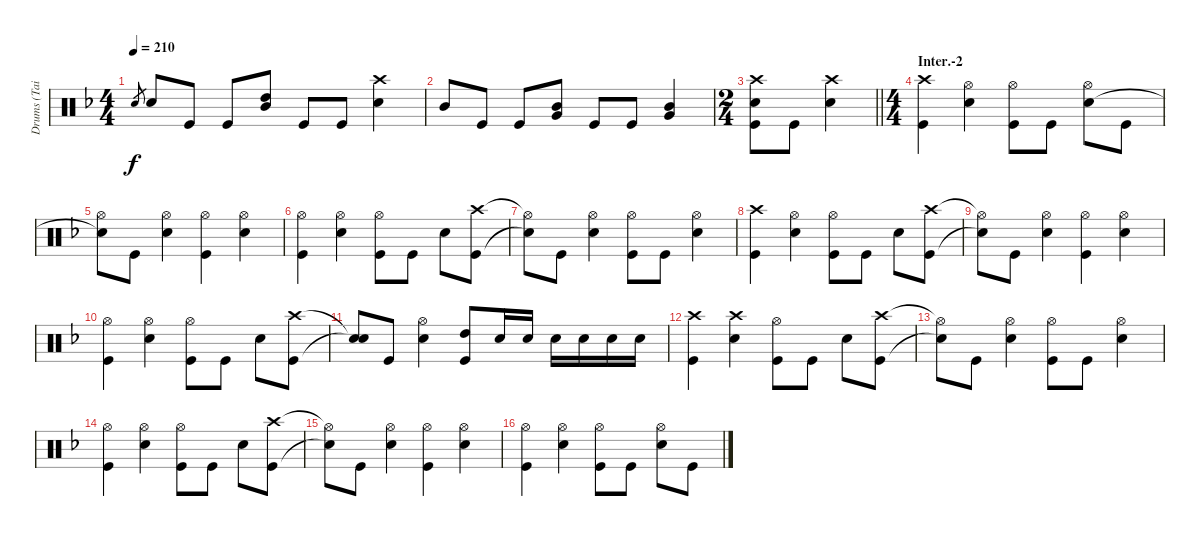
\track ("Drums (Tainaka Ritsu)" "Drums (Tai") {instrument percussion}
\staff {score}
\articulation defaults
\ts (4 4)
\tempo 210
\clef neutral
\ks f "Snare (hit) 2".8{gr dy f} "Snare (hit) 2".8 "Kick (hit)".8 "Kick (hit)".8
("High Tom (hit)" "Mid Tom (hit)").8 "Kick (hit)".8 "Kick (hit)".8 ("Crash high (hit)" "Snare (hit) 2").4 |
"Mid Tom (hit)".8 "Kick (hit)".8 "Kick (hit)".8 ("Mid Tom (hit)" "Very Low Tom (hit)").8 "Kick (hit)".8 "Kick (hit)".8 ("Mid Tom (hit)" "Very Low Tom (hit)").4 |
\ts (2 4)
\barLineRight lightlight
("Crash high (hit)" "Snare (hit) 2" "Kick (hit)").8 "Kick (hit)".8 ("Crash high (hit)" "Snare (hit) 2").4 |
\ts (4 4)
\section ("" "Inter.-2")
("Crash high (hit)" "Kick (hit)").4 ("Hi-Hat (open)" "Snare (hit) 2").4 ("Hi-Hat (open)" "Kick (hit)").8 "Kick (hit)".8 ("Hi-Hat (open)" "Snare (hit) 2").8 "Kick (hit)".8 |
("Hi-Hat (open)" "Snare (hit)"{t}).8 "Kick (hit)".8 ("Hi-Hat (open)" "Snare (hit) 2").4 ("Hi-Hat (open)" "Kick (hit)").4 ("Hi-Hat (open)" "Snare (hit) 2").4 |
("Hi-Hat (open)" "Kick (hit)").4 ("Hi-Hat (open)" "Snare (hit) 2").4 ("Hi-Hat (open)" "Kick (hit)").8 "Kick (hit)".8 "Snare (hit) 2".8 ("Crash high (hit)" "Kick (hit)").8 |
("Hi-Hat (open)"{t} "Snare (hit)"{t}).8 "Kick (hit)".8 ("Hi-Hat (open)" "Snare (hit) 2").4 ("Hi-Hat (open)" "Kick (hit)").8 "Kick (hit)".8 ("Hi-Hat (open)" "Snare (hit) 2").4 |
("Crash high (hit)" "Kick (hit)").4 ("Hi-Hat (open)" "Snare (hit) 2").4 ("Hi-Hat (open)" "Kick (hit)").8 "Kick (hit)".8 "Snare (hit) 2".8 ("Crash high (hit)" "Kick (hit)").8 |
("Hi-Hat (open)"{t} "Snare (hit)"{t}).8 "Kick (hit)".8 ("Hi-Hat (open)" "Snare (hit) 2").4 ("Hi-Hat (open)" "Kick (hit)").4 ("Hi-Hat (open)" "Snare (hit) 2").4 |
("Hi-Hat (open)" "Kick (hit)").4 ("Hi-Hat (open)" "Snare (hit) 2").4 ("Hi-Hat (open)" "Kick (hit)").8 "Kick (hit)".8 "Snare (hit) 2".8 ("Crash high (hit)" "Kick (hit)").8 |
("Snare (hit)"{t} "Snare (hit)"{t}).8 "Kick (hit)".8 ("Hi-Hat (open)" "Snare (hit) 2").4 ("High Tom (hit)" "Kick (hit)").8 "Snare (hit) 2".16 "Snare (hit) 2".16 "Snare (hit) 2".16 "Snare (hit) 2".16 "Snare (hit) 2".16 "Snare (hit) 2".16 |
("Crash high (hit)" "Kick (hit)").4 ("Crash high (hit)" "Snare (hit) 2").4 ("Hi-Hat (open)" "Kick (hit)").8 "Kick (hit)".8 "Snare (hit) 2".8 ("Crash high (hit)" "Kick (hit)").8 |
("Hi-Hat (open)"{t} "Snare (hit)"{t}).8 "Kick (hit)".8 ("Hi-Hat (open)" "Snare (hit) 2").4 ("Hi-Hat (open)" "Kick (hit)").8 "Kick (hit)".8 ("Hi-Hat (open)" "Snare (hit) 2").4 |
("Hi-Hat (open)" "Kick (hit)").4 ("Hi-Hat (open)" "Snare (hit) 2").4 ("Hi-Hat (open)" "Kick (hit)").8 "Kick (hit)".8 "Snare (hit) 2".8 ("Crash high (hit)" "Kick (hit)").8 |
("Hi-Hat (open)"{t} "Snare (hit)"{t}).8 "Kick (hit)".8 ("Hi-Hat (open)" "Snare (hit) 2").4 ("Hi-Hat (open)" "Kick (hit)").4 ("Hi-Hat (open)" "Snare (hit) 2").4 |
("Hi-Hat (open)" "Kick (hit)").4 ("Hi-Hat (open)" "Snare (hit) 2").4 ("Hi-Hat (open)" "Kick (hit)").8 "Kick (hit)".8 ("Hi-Hat (open)" "Snare (hit) 2").8 "Kick (hit)".8
